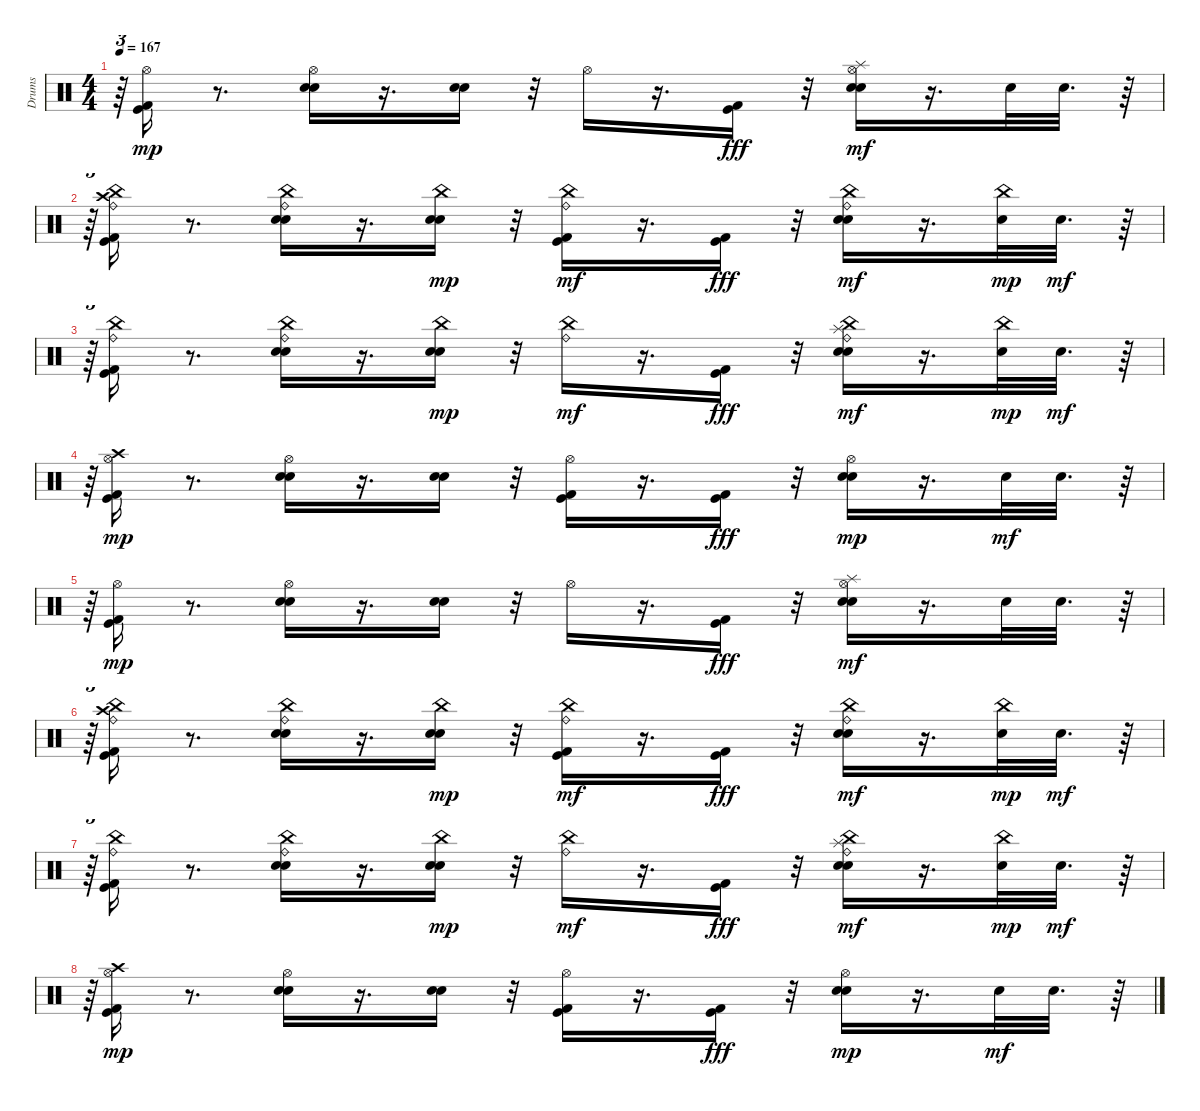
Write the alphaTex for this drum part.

\track ("Drums" "Drums") {instrument percussion}
\staff {score}
\articulation defaults
\ts (4 4)
\tempo 167
\clef neutral
\ks c
r.64{tu (3 2) dy mf} ("Kick (hit) 2" "Kick (hit)" "Hi-Hat (open)").16{dy mp} r.8{d} ("Snare (hit) 2" "Hand Clap (hit)" "Hi-Hat (open)").16 r.16{d} ("Snare (hit) 2" "Hand Clap (hit)").16 r.32 "Hi-Hat (open)".16 r.16{d} ("Kick (hit) 2" "Kick (hit)").16{dy fff} r.32 ("Snare (hit) 2" "Hand Clap (hit)" "Hi-Hat (open)" "Splash (hit)").16{dy mf} r.16{d} "Snare (hit) 2".32 "Hand Clap (hit)".32{d} r.64 |
r.64{tu (3 2)} ("Kick (hit) 2" "Kick (hit)" "China (hit)" "Ride (bell)" "Crash high (hit)").16 r.8{d} ("Snare (hit) 2" "Hand Clap (hit)" "China (hit)" "Ride (bell)").16 r.16{d} ("Snare (hit) 2" "Hand Clap (hit)" "China (hit)").16{dy mp} r.32 ("Kick (hit) 2" "Kick (hit)" "China (hit)" "Ride (bell)").16{dy mf} r.16{d} ("Kick (hit) 2" "Kick (hit)").16{dy fff} r.32 ("Snare (hit) 2" "Hand Clap (hit)" "China (hit)" "Ride (bell)").16{dy mf} r.16{d} ("Snare (hit) 2" "China (hit)").32{dy mp} "Hand Clap (hit)".32{d dy mf} r.64 |
r.64{tu (3 2)} ("Kick (hit) 2" "Kick (hit)" "China (hit)" "Ride (bell)").16 r.8{d} ("Snare (hit) 2" "Hand Clap (hit)" "China (hit)" "Ride (bell)").16 r.16{d} ("Snare (hit) 2" "Hand Clap (hit)" "China (hit)").16{dy mp} r.32 ("China (hit)" "Ride (bell)").16{dy mf} r.16{d} ("Kick (hit) 2" "Kick (hit)").16{dy fff} r.32 ("Snare (hit) 2" "Hand Clap (hit)" "China (hit)" "Ride (bell)" "Splash (hit)").16{dy mf} r.16{d} ("Snare (hit) 2" "China (hit)").32{dy mp} "Hand Clap (hit)".32{d dy mf} r.64 |
r.64{tu (3 2)} ("Kick (hit) 2" "Kick (hit)" "Crash high (hit)" "Hi-Hat (open)").16{dy mp} r.8{d} ("Snare (hit) 2" "Hand Clap (hit)" "Hi-Hat (open)").16 r.16{d} ("Snare (hit) 2" "Hand Clap (hit)").16 r.32 ("Kick (hit) 2" "Kick (hit)" "Hi-Hat (open)").16 r.16{d} ("Kick (hit) 2" "Kick (hit)").16{dy fff} r.32 ("Snare (hit) 2" "Hand Clap (hit)" "Hi-Hat (open)").16{dy mp} r.16{d} "Snare (hit) 2".32{dy mf} "Hand Clap (hit)".32{d} r.64 |
r.64{tu (3 2)} ("Kick (hit) 2" "Kick (hit)" "Hi-Hat (open)").16{dy mp} r.8{d} ("Snare (hit) 2" "Hand Clap (hit)" "Hi-Hat (open)").16 r.16{d} ("Snare (hit) 2" "Hand Clap (hit)").16 r.32 "Hi-Hat (open)".16 r.16{d} ("Kick (hit) 2" "Kick (hit)").16{dy fff} r.32 ("Snare (hit) 2" "Hand Clap (hit)" "Hi-Hat (open)" "Splash (hit)").16{dy mf} r.16{d} "Snare (hit) 2".32 "Hand Clap (hit)".32{d} r.64 |
r.64{tu (3 2)} ("Kick (hit) 2" "Kick (hit)" "China (hit)" "Ride (bell)" "Crash high (hit)").16 r.8{d} ("Snare (hit) 2" "Hand Clap (hit)" "China (hit)" "Ride (bell)").16 r.16{d} ("Snare (hit) 2" "Hand Clap (hit)" "China (hit)").16{dy mp} r.32 ("Kick (hit) 2" "Kick (hit)" "China (hit)" "Ride (bell)").16{dy mf} r.16{d} ("Kick (hit) 2" "Kick (hit)").16{dy fff} r.32 ("Snare (hit) 2" "Hand Clap (hit)" "China (hit)" "Ride (bell)").16{dy mf} r.16{d} ("Snare (hit) 2" "China (hit)").32{dy mp} "Hand Clap (hit)".32{d dy mf} r.64 |
r.64{tu (3 2)} ("Kick (hit) 2" "Kick (hit)" "China (hit)" "Ride (bell)").16 r.8{d} ("Snare (hit) 2" "Hand Clap (hit)" "China (hit)" "Ride (bell)").16 r.16{d} ("Snare (hit) 2" "Hand Clap (hit)" "China (hit)").16{dy mp} r.32 ("China (hit)" "Ride (bell)").16{dy mf} r.16{d} ("Kick (hit) 2" "Kick (hit)").16{dy fff} r.32 ("Snare (hit) 2" "Hand Clap (hit)" "China (hit)" "Ride (bell)" "Splash (hit)").16{dy mf} r.16{d} ("Snare (hit) 2" "China (hit)").32{dy mp} "Hand Clap (hit)".32{d dy mf} r.64 |
r.64{tu (3 2)} ("Kick (hit) 2" "Kick (hit)" "Crash high (hit)" "Hi-Hat (open)").16{dy mp} r.8{d} ("Snare (hit) 2" "Hand Clap (hit)" "Hi-Hat (open)").16 r.16{d} ("Snare (hit) 2" "Hand Clap (hit)").16 r.32 ("Kick (hit) 2" "Kick (hit)" "Hi-Hat (open)").16 r.16{d} ("Kick (hit) 2" "Kick (hit)").16{dy fff} r.32 ("Snare (hit) 2" "Hand Clap (hit)" "Hi-Hat (open)").16{dy mp} r.16{d} "Snare (hit) 2".32{dy mf} "Hand Clap (hit)".32{d} r.64
